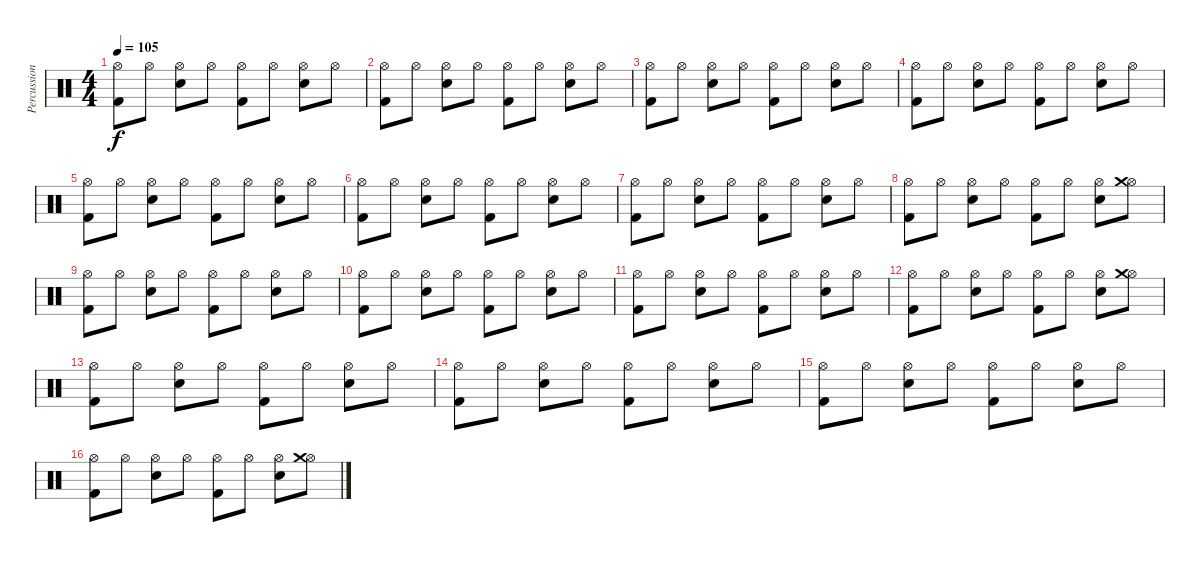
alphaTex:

\track ("Percussion" "Percussion") {instrument percussion}
\staff {score}
\articulation defaults
\ts (4 4)
\tempo 105
\clef neutral
\ks c
("Hi-Hat (open)" "Kick (hit) 2").8{dy f} "Hi-Hat (open)".8 ("Hi-Hat (open)" "Snare (hit) 2").8 "Hi-Hat (open)".8 ("Hi-Hat (open)" "Kick (hit) 2").8 "Hi-Hat (open)".8 ("Hi-Hat (open)" "Snare (hit) 2").8 "Hi-Hat (open)".8 |
("Hi-Hat (open)" "Kick (hit) 2").8 "Hi-Hat (open)".8 ("Hi-Hat (open)" "Snare (hit) 2").8 "Hi-Hat (open)".8 ("Hi-Hat (open)" "Kick (hit) 2").8 "Hi-Hat (open)".8 ("Hi-Hat (open)" "Snare (hit) 2").8 "Hi-Hat (open)".8 |
("Hi-Hat (open)" "Kick (hit) 2").8 "Hi-Hat (open)".8 ("Hi-Hat (open)" "Snare (hit) 2").8 "Hi-Hat (open)".8 ("Hi-Hat (open)" "Kick (hit) 2").8 "Hi-Hat (open)".8 ("Hi-Hat (open)" "Snare (hit) 2").8 "Hi-Hat (open)".8 |
("Hi-Hat (open)" "Kick (hit) 2").8 "Hi-Hat (open)".8 ("Hi-Hat (open)" "Snare (hit) 2").8 "Hi-Hat (open)".8 ("Hi-Hat (open)" "Kick (hit) 2").8 "Hi-Hat (open)".8 ("Hi-Hat (open)" "Snare (hit) 2").8 "Hi-Hat (open)".8 |
("Hi-Hat (open)" "Kick (hit) 2").8 "Hi-Hat (open)".8 ("Hi-Hat (open)" "Snare (hit) 2").8 "Hi-Hat (open)".8 ("Hi-Hat (open)" "Kick (hit) 2").8 "Hi-Hat (open)".8 ("Hi-Hat (open)" "Snare (hit) 2").8 "Hi-Hat (open)".8 |
("Hi-Hat (open)" "Kick (hit) 2").8 "Hi-Hat (open)".8 ("Hi-Hat (open)" "Snare (hit) 2").8 "Hi-Hat (open)".8 ("Hi-Hat (open)" "Kick (hit) 2").8 "Hi-Hat (open)".8 ("Hi-Hat (open)" "Snare (hit) 2").8 "Hi-Hat (open)".8 |
("Hi-Hat (open)" "Kick (hit) 2").8 "Hi-Hat (open)".8 ("Hi-Hat (open)" "Snare (hit) 2").8 "Hi-Hat (open)".8 ("Hi-Hat (open)" "Kick (hit) 2").8 "Hi-Hat (open)".8 ("Hi-Hat (open)" "Snare (hit) 2").8 "Hi-Hat (open)".8 |
("Hi-Hat (open)" "Kick (hit) 2").8 "Hi-Hat (open)".8 ("Hi-Hat (open)" "Snare (hit) 2").8 "Hi-Hat (open)".8 ("Hi-Hat (open)" "Kick (hit) 2").8 "Hi-Hat (open)".8 ("Hi-Hat (open)" "Snare (hit) 2").8 ("Hi-Hat (open)" "Crash medium (hit)").8 |
("Hi-Hat (open)" "Kick (hit) 2").8 "Hi-Hat (open)".8 ("Hi-Hat (open)" "Snare (hit) 2").8 "Hi-Hat (open)".8 ("Hi-Hat (open)" "Kick (hit) 2").8 "Hi-Hat (open)".8 ("Hi-Hat (open)" "Snare (hit) 2").8 "Hi-Hat (open)".8 |
("Hi-Hat (open)" "Kick (hit) 2").8 "Hi-Hat (open)".8 ("Hi-Hat (open)" "Snare (hit) 2").8 "Hi-Hat (open)".8 ("Hi-Hat (open)" "Kick (hit) 2").8 "Hi-Hat (open)".8 ("Hi-Hat (open)" "Snare (hit) 2").8 "Hi-Hat (open)".8 |
("Hi-Hat (open)" "Kick (hit) 2").8 "Hi-Hat (open)".8 ("Hi-Hat (open)" "Snare (hit) 2").8 "Hi-Hat (open)".8 ("Hi-Hat (open)" "Kick (hit) 2").8 "Hi-Hat (open)".8 ("Hi-Hat (open)" "Snare (hit) 2").8 "Hi-Hat (open)".8 |
("Hi-Hat (open)" "Kick (hit) 2").8 "Hi-Hat (open)".8 ("Hi-Hat (open)" "Snare (hit) 2").8 "Hi-Hat (open)".8 ("Hi-Hat (open)" "Kick (hit) 2").8 "Hi-Hat (open)".8 ("Hi-Hat (open)" "Snare (hit) 2").8 ("Hi-Hat (open)" "Crash medium (hit)").8 |
("Hi-Hat (open)" "Kick (hit) 2").8 "Hi-Hat (open)".8 ("Hi-Hat (open)" "Snare (hit) 2").8 "Hi-Hat (open)".8 ("Hi-Hat (open)" "Kick (hit) 2").8 "Hi-Hat (open)".8 ("Hi-Hat (open)" "Snare (hit) 2").8 "Hi-Hat (open)".8 |
("Hi-Hat (open)" "Kick (hit) 2").8 "Hi-Hat (open)".8 ("Hi-Hat (open)" "Snare (hit) 2").8 "Hi-Hat (open)".8 ("Hi-Hat (open)" "Kick (hit) 2").8 "Hi-Hat (open)".8 ("Hi-Hat (open)" "Snare (hit) 2").8 "Hi-Hat (open)".8 |
("Hi-Hat (open)" "Kick (hit) 2").8 "Hi-Hat (open)".8 ("Hi-Hat (open)" "Snare (hit) 2").8 "Hi-Hat (open)".8 ("Hi-Hat (open)" "Kick (hit) 2").8 "Hi-Hat (open)".8 ("Hi-Hat (open)" "Snare (hit) 2").8 "Hi-Hat (open)".8 |
("Hi-Hat (open)" "Kick (hit) 2").8 "Hi-Hat (open)".8 ("Hi-Hat (open)" "Snare (hit) 2").8 "Hi-Hat (open)".8 ("Hi-Hat (open)" "Kick (hit) 2").8 "Hi-Hat (open)".8 ("Hi-Hat (open)" "Snare (hit) 2").8 ("Hi-Hat (open)" "Crash medium (hit)").8
